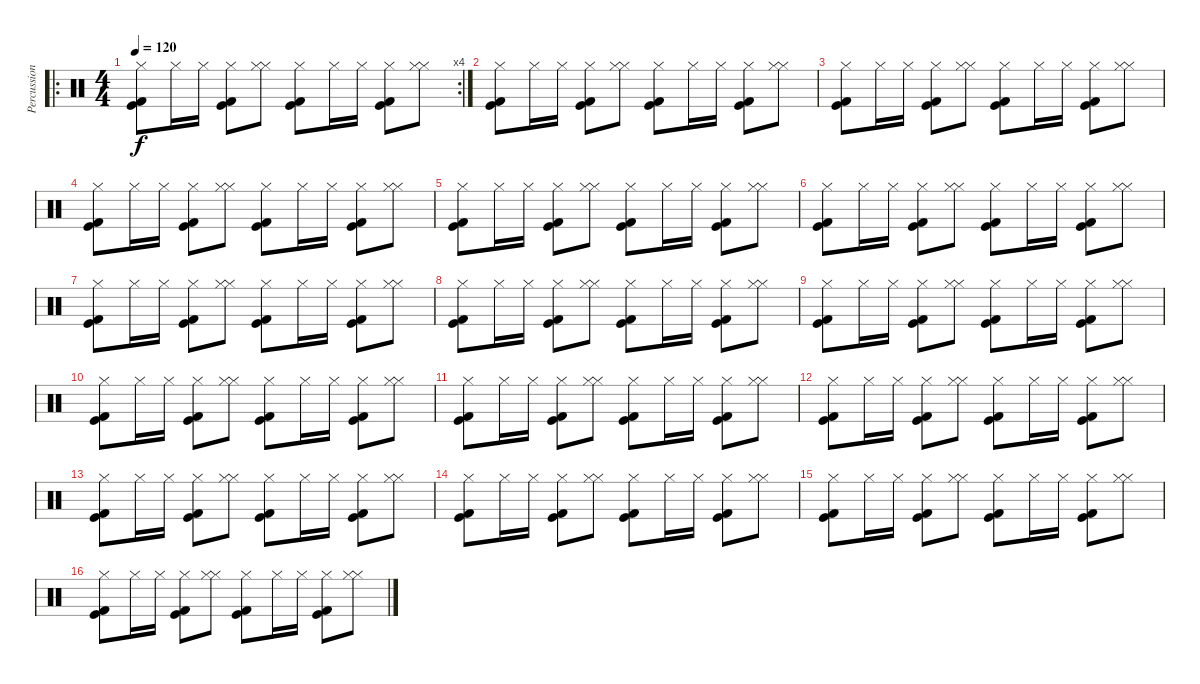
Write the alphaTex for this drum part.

\track ("Percussions" "Percussion") {instrument percussion}
\staff {score}
\articulation defaults
\ro
\rc 4
\ts (4 4)
\tempo 120
\clef neutral
\ks c
("Kick (hit) 2" "Kick (hit)" "Hi-Hat (closed)").8{dy f} "Hi-Hat (closed)".16 "Hi-Hat (closed)".16 ("Kick (hit) 2" "Kick (hit)" "Hi-Hat (closed)").8 ("Hi-Hat (closed)" "Hi-Hat (closed)").8 ("Kick (hit) 2" "Kick (hit)" "Hi-Hat (closed)").8 "Hi-Hat (closed)".16 "Hi-Hat (closed)".16 ("Kick (hit) 2" "Kick (hit)" "Hi-Hat (closed)").8 ("Hi-Hat (closed)" "Hi-Hat (closed)").8 |
("Kick (hit) 2" "Kick (hit)" "Hi-Hat (closed)").8 "Hi-Hat (closed)".16 "Hi-Hat (closed)".16 ("Kick (hit) 2" "Kick (hit)" "Hi-Hat (closed)").8 ("Hi-Hat (closed)" "Hi-Hat (closed)").8 ("Kick (hit) 2" "Kick (hit)" "Hi-Hat (closed)").8 "Hi-Hat (closed)".16 "Hi-Hat (closed)".16 ("Kick (hit) 2" "Kick (hit)" "Hi-Hat (closed)").8 ("Hi-Hat (closed)" "Hi-Hat (closed)").8 |
("Kick (hit) 2" "Kick (hit)" "Hi-Hat (closed)").8 "Hi-Hat (closed)".16 "Hi-Hat (closed)".16 ("Kick (hit) 2" "Kick (hit)" "Hi-Hat (closed)").8 ("Hi-Hat (closed)" "Hi-Hat (closed)").8 ("Kick (hit) 2" "Kick (hit)" "Hi-Hat (closed)").8 "Hi-Hat (closed)".16 "Hi-Hat (closed)".16 ("Kick (hit) 2" "Kick (hit)" "Hi-Hat (closed)").8 ("Hi-Hat (closed)" "Hi-Hat (closed)").8 |
("Kick (hit) 2" "Kick (hit)" "Hi-Hat (closed)").8 "Hi-Hat (closed)".16 "Hi-Hat (closed)".16 ("Kick (hit) 2" "Kick (hit)" "Hi-Hat (closed)").8 ("Hi-Hat (closed)" "Hi-Hat (closed)").8 ("Kick (hit) 2" "Kick (hit)" "Hi-Hat (closed)").8 "Hi-Hat (closed)".16 "Hi-Hat (closed)".16 ("Kick (hit) 2" "Kick (hit)" "Hi-Hat (closed)").8 ("Hi-Hat (closed)" "Hi-Hat (closed)").8 |
("Kick (hit) 2" "Kick (hit)" "Hi-Hat (closed)").8 "Hi-Hat (closed)".16 "Hi-Hat (closed)".16 ("Kick (hit) 2" "Kick (hit)" "Hi-Hat (closed)").8 ("Hi-Hat (closed)" "Hi-Hat (closed)").8 ("Kick (hit) 2" "Kick (hit)" "Hi-Hat (closed)").8 "Hi-Hat (closed)".16 "Hi-Hat (closed)".16 ("Kick (hit) 2" "Kick (hit)" "Hi-Hat (closed)").8 ("Hi-Hat (closed)" "Hi-Hat (closed)").8 |
("Kick (hit) 2" "Kick (hit)" "Hi-Hat (closed)").8 "Hi-Hat (closed)".16 "Hi-Hat (closed)".16 ("Kick (hit) 2" "Kick (hit)" "Hi-Hat (closed)").8 ("Hi-Hat (closed)" "Hi-Hat (closed)").8 ("Kick (hit) 2" "Kick (hit)" "Hi-Hat (closed)").8 "Hi-Hat (closed)".16 "Hi-Hat (closed)".16 ("Kick (hit) 2" "Kick (hit)" "Hi-Hat (closed)").8 ("Hi-Hat (closed)" "Hi-Hat (closed)").8 |
("Kick (hit) 2" "Kick (hit)" "Hi-Hat (closed)").8 "Hi-Hat (closed)".16 "Hi-Hat (closed)".16 ("Kick (hit) 2" "Kick (hit)" "Hi-Hat (closed)").8 ("Hi-Hat (closed)" "Hi-Hat (closed)").8 ("Kick (hit) 2" "Kick (hit)" "Hi-Hat (closed)").8 "Hi-Hat (closed)".16 "Hi-Hat (closed)".16 ("Kick (hit) 2" "Kick (hit)" "Hi-Hat (closed)").8 ("Hi-Hat (closed)" "Hi-Hat (closed)").8 |
("Kick (hit) 2" "Kick (hit)" "Hi-Hat (closed)").8 "Hi-Hat (closed)".16 "Hi-Hat (closed)".16 ("Kick (hit) 2" "Kick (hit)" "Hi-Hat (closed)").8 ("Hi-Hat (closed)" "Hi-Hat (closed)").8 ("Kick (hit) 2" "Kick (hit)" "Hi-Hat (closed)").8 "Hi-Hat (closed)".16 "Hi-Hat (closed)".16 ("Kick (hit) 2" "Kick (hit)" "Hi-Hat (closed)").8 ("Hi-Hat (closed)" "Hi-Hat (closed)").8 |
("Kick (hit) 2" "Kick (hit)" "Hi-Hat (closed)").8 "Hi-Hat (closed)".16 "Hi-Hat (closed)".16 ("Kick (hit) 2" "Kick (hit)" "Hi-Hat (closed)").8 ("Hi-Hat (closed)" "Hi-Hat (closed)").8 ("Kick (hit) 2" "Kick (hit)" "Hi-Hat (closed)").8 "Hi-Hat (closed)".16 "Hi-Hat (closed)".16 ("Kick (hit) 2" "Kick (hit)" "Hi-Hat (closed)").8 ("Hi-Hat (closed)" "Hi-Hat (closed)").8 |
("Kick (hit) 2" "Kick (hit)" "Hi-Hat (closed)").8 "Hi-Hat (closed)".16 "Hi-Hat (closed)".16 ("Kick (hit) 2" "Kick (hit)" "Hi-Hat (closed)").8 ("Hi-Hat (closed)" "Hi-Hat (closed)").8 ("Kick (hit) 2" "Kick (hit)" "Hi-Hat (closed)").8 "Hi-Hat (closed)".16 "Hi-Hat (closed)".16 ("Kick (hit) 2" "Kick (hit)" "Hi-Hat (closed)").8 ("Hi-Hat (closed)" "Hi-Hat (closed)").8 |
("Kick (hit) 2" "Kick (hit)" "Hi-Hat (closed)").8 "Hi-Hat (closed)".16 "Hi-Hat (closed)".16 ("Kick (hit) 2" "Kick (hit)" "Hi-Hat (closed)").8 ("Hi-Hat (closed)" "Hi-Hat (closed)").8 ("Kick (hit) 2" "Kick (hit)" "Hi-Hat (closed)").8 "Hi-Hat (closed)".16 "Hi-Hat (closed)".16 ("Kick (hit) 2" "Kick (hit)" "Hi-Hat (closed)").8 ("Hi-Hat (closed)" "Hi-Hat (closed)").8 |
("Kick (hit) 2" "Kick (hit)" "Hi-Hat (closed)").8 "Hi-Hat (closed)".16 "Hi-Hat (closed)".16 ("Kick (hit) 2" "Kick (hit)" "Hi-Hat (closed)").8 ("Hi-Hat (closed)" "Hi-Hat (closed)").8 ("Kick (hit) 2" "Kick (hit)" "Hi-Hat (closed)").8 "Hi-Hat (closed)".16 "Hi-Hat (closed)".16 ("Kick (hit) 2" "Kick (hit)" "Hi-Hat (closed)").8 ("Hi-Hat (closed)" "Hi-Hat (closed)").8 |
("Kick (hit) 2" "Kick (hit)" "Hi-Hat (closed)").8 "Hi-Hat (closed)".16 "Hi-Hat (closed)".16 ("Kick (hit) 2" "Kick (hit)" "Hi-Hat (closed)").8 ("Hi-Hat (closed)" "Hi-Hat (closed)").8 ("Kick (hit) 2" "Kick (hit)" "Hi-Hat (closed)").8 "Hi-Hat (closed)".16 "Hi-Hat (closed)".16 ("Kick (hit) 2" "Kick (hit)" "Hi-Hat (closed)").8 ("Hi-Hat (closed)" "Hi-Hat (closed)").8 |
("Kick (hit) 2" "Kick (hit)" "Hi-Hat (closed)").8 "Hi-Hat (closed)".16 "Hi-Hat (closed)".16 ("Kick (hit) 2" "Kick (hit)" "Hi-Hat (closed)").8 ("Hi-Hat (closed)" "Hi-Hat (closed)").8 ("Kick (hit) 2" "Kick (hit)" "Hi-Hat (closed)").8 "Hi-Hat (closed)".16 "Hi-Hat (closed)".16 ("Kick (hit) 2" "Kick (hit)" "Hi-Hat (closed)").8 ("Hi-Hat (closed)" "Hi-Hat (closed)").8 |
("Kick (hit) 2" "Kick (hit)" "Hi-Hat (closed)").8 "Hi-Hat (closed)".16 "Hi-Hat (closed)".16 ("Kick (hit) 2" "Kick (hit)" "Hi-Hat (closed)").8 ("Hi-Hat (closed)" "Hi-Hat (closed)").8 ("Kick (hit) 2" "Kick (hit)" "Hi-Hat (closed)").8 "Hi-Hat (closed)".16 "Hi-Hat (closed)".16 ("Kick (hit) 2" "Kick (hit)" "Hi-Hat (closed)").8 ("Hi-Hat (closed)" "Hi-Hat (closed)").8 |
("Kick (hit) 2" "Kick (hit)" "Hi-Hat (closed)").8 "Hi-Hat (closed)".16 "Hi-Hat (closed)".16 ("Kick (hit) 2" "Kick (hit)" "Hi-Hat (closed)").8 ("Hi-Hat (closed)" "Hi-Hat (closed)").8 ("Kick (hit) 2" "Kick (hit)" "Hi-Hat (closed)").8 "Hi-Hat (closed)".16 "Hi-Hat (closed)".16 ("Kick (hit) 2" "Kick (hit)" "Hi-Hat (closed)").8 ("Hi-Hat (closed)" "Hi-Hat (closed)").8
